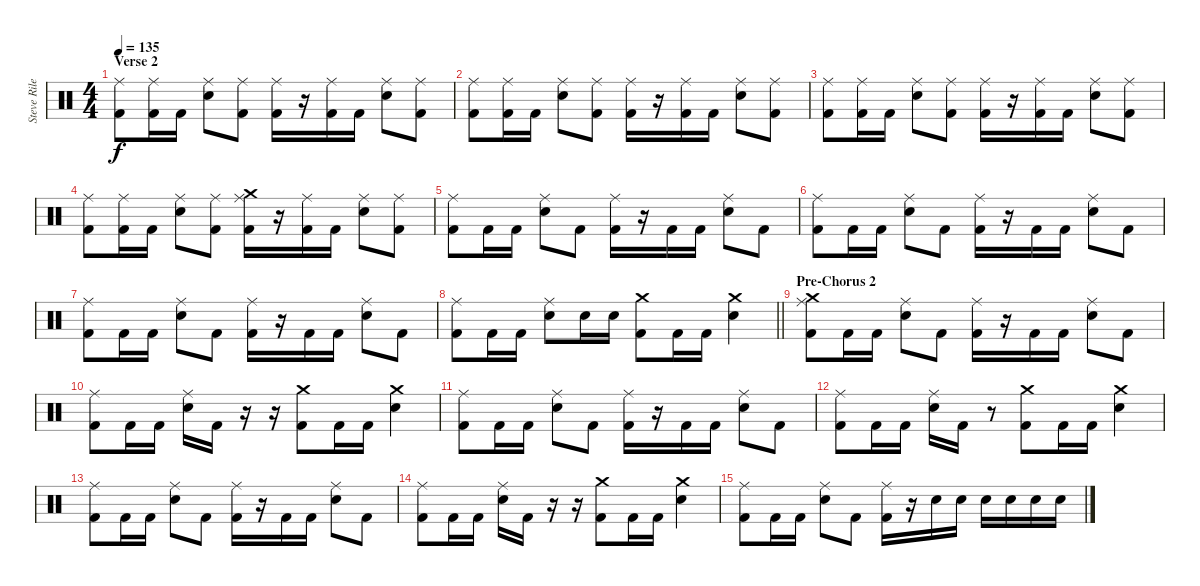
\track ("Steve Riley" "Steve Rile") {instrument percussion}
\staff {score}
\articulation defaults
\ts (4 4)
\section ("" "Verse 2")
\tempo 135
\clef neutral
\ks c
("Ride (middle)" "Kick (hit) 2").8{dy f} ("Ride (middle)" "Kick (hit) 2").16 "Kick (hit) 2".16 ("Ride (middle)" "Snare (hit) 2").8 ("Ride (middle)" "Kick (hit) 2").8 ("Ride (middle)" "Kick (hit) 2").16 r.16 ("Ride (middle)" "Kick (hit) 2").16 "Kick (hit) 2".16 ("Ride (middle)" "Snare (hit) 2").8 ("Ride (middle)" "Kick (hit) 2").8 |
("Ride (middle)" "Kick (hit) 2").8 ("Ride (middle)" "Kick (hit) 2").16 "Kick (hit) 2".16 ("Ride (middle)" "Snare (hit) 2").8 ("Ride (middle)" "Kick (hit) 2").8 ("Ride (middle)" "Kick (hit) 2").16 r.16 ("Ride (middle)" "Kick (hit) 2").16 "Kick (hit) 2".16 ("Ride (middle)" "Snare (hit) 2").8 ("Ride (middle)" "Kick (hit) 2").8 |
("Ride (middle)" "Kick (hit) 2").8 ("Ride (middle)" "Kick (hit) 2").16 "Kick (hit) 2".16 ("Ride (middle)" "Snare (hit) 2").8 ("Ride (middle)" "Kick (hit) 2").8 ("Ride (middle)" "Kick (hit) 2").16 r.16 ("Ride (middle)" "Kick (hit) 2").16 "Kick (hit) 2".16 ("Ride (middle)" "Snare (hit) 2").8 ("Ride (middle)" "Kick (hit) 2").8 |
("Ride (middle)" "Kick (hit) 2").8 ("Ride (middle)" "Kick (hit) 2").16 "Kick (hit) 2".16 ("Ride (middle)" "Snare (hit) 2").8 ("Ride (middle)" "Kick (hit) 2").8 ("Crash medium (hit)" "Ride (middle)" "Kick (hit) 2").16 r.16 ("Ride (middle)" "Kick (hit) 2").16 "Kick (hit) 2".16 ("Ride (middle)" "Snare (hit) 2").8 ("Ride (middle)" "Kick (hit) 2").8 |
("Ride (middle)" "Kick (hit) 2").8 "Kick (hit) 2".16 "Kick (hit) 2".16 ("Ride (middle)" "Snare (hit) 2").8 "Kick (hit) 2".8 ("Ride (middle)" "Kick (hit) 2").16 r.16 "Kick (hit) 2".16 "Kick (hit) 2".16 ("Ride (middle)" "Snare (hit) 2").8 "Kick (hit) 2".8 |
("Ride (middle)" "Kick (hit) 2").8 "Kick (hit) 2".16 "Kick (hit) 2".16 ("Ride (middle)" "Snare (hit) 2").8 "Kick (hit) 2".8 ("Ride (middle)" "Kick (hit) 2").16 r.16 "Kick (hit) 2".16 "Kick (hit) 2".16 ("Ride (middle)" "Snare (hit) 2").8 "Kick (hit) 2".8 |
("Ride (middle)" "Kick (hit) 2").8 "Kick (hit) 2".16 "Kick (hit) 2".16 ("Ride (middle)" "Snare (hit) 2").8 "Kick (hit) 2".8 ("Ride (middle)" "Kick (hit) 2").16 r.16 "Kick (hit) 2".16 "Kick (hit) 2".16 ("Ride (middle)" "Snare (hit) 2").8 "Kick (hit) 2".8 |
\barLineRight lightlight
("Ride (middle)" "Kick (hit) 2").8 "Kick (hit) 2".16 "Kick (hit) 2".16 ("Ride (middle)" "Snare (hit) 2").8 "Snare (hit) 2".16 "Snare (hit) 2".16 ("Crash medium (hit)" "Kick (hit) 2").8 "Kick (hit) 2".16 "Kick (hit) 2".16 ("Crash medium (hit)" "Snare (hit) 2").4 |
\section ("" "Pre-Chorus 2")
("Crash medium (hit)" "Ride (middle)" "Kick (hit) 2").8 "Kick (hit) 2".16 "Kick (hit) 2".16 ("Ride (middle)" "Snare (hit) 2").8 "Kick (hit) 2".8 ("Ride (middle)" "Kick (hit) 2").16 r.16 "Kick (hit) 2".16 "Kick (hit) 2".16 ("Ride (middle)" "Snare (hit) 2").8 "Kick (hit) 2".8 |
("Ride (middle)" "Kick (hit) 2").8 "Kick (hit) 2".16 "Kick (hit) 2".16 ("Ride (middle)" "Snare (hit) 2").16 "Kick (hit) 2".16 r.16 r.16 ("Crash medium (hit)" "Kick (hit) 2").8 "Kick (hit) 2".16 "Kick (hit) 2".16 ("Crash medium (hit)" "Snare (hit) 2").4 |
("Ride (middle)" "Kick (hit) 2").8 "Kick (hit) 2".16 "Kick (hit) 2".16 ("Ride (middle)" "Snare (hit) 2").8 "Kick (hit) 2".8 ("Ride (middle)" "Kick (hit) 2").16 r.16 "Kick (hit) 2".16 "Kick (hit) 2".16 ("Ride (middle)" "Snare (hit) 2").8 "Kick (hit) 2".8 |
("Ride (middle)" "Kick (hit) 2").8 "Kick (hit) 2".16 "Kick (hit) 2".16 ("Ride (middle)" "Snare (hit) 2").16 "Kick (hit) 2".16 r.8 ("Crash medium (hit)" "Kick (hit) 2").8 "Kick (hit) 2".16 "Kick (hit) 2".16 ("Crash medium (hit)" "Snare (hit) 2").4 |
("Ride (middle)" "Kick (hit) 2").8 "Kick (hit) 2".16 "Kick (hit) 2".16 ("Ride (middle)" "Snare (hit) 2").8 "Kick (hit) 2".8 ("Ride (middle)" "Kick (hit) 2").16 r.16 "Kick (hit) 2".16 "Kick (hit) 2".16 ("Ride (middle)" "Snare (hit) 2").8 "Kick (hit) 2".8 |
("Ride (middle)" "Kick (hit) 2").8 "Kick (hit) 2".16 "Kick (hit) 2".16 ("Ride (middle)" "Snare (hit) 2").16 "Kick (hit) 2".16 r.16 r.16 ("Crash medium (hit)" "Kick (hit) 2").8 "Kick (hit) 2".16 "Kick (hit) 2".16 ("Crash medium (hit)" "Snare (hit) 2").4 |
("Ride (middle)" "Kick (hit) 2").8 "Kick (hit) 2".16 "Kick (hit) 2".16 ("Ride (middle)" "Snare (hit) 2").8 "Kick (hit) 2".8 ("Ride (middle)" "Kick (hit) 2").16 r.16 "Snare (hit) 2".16 "Snare (hit) 2".16 "Snare (hit) 2".16 "Snare (hit) 2".16 "Snare (hit) 2".16 "Snare (hit) 2".16
